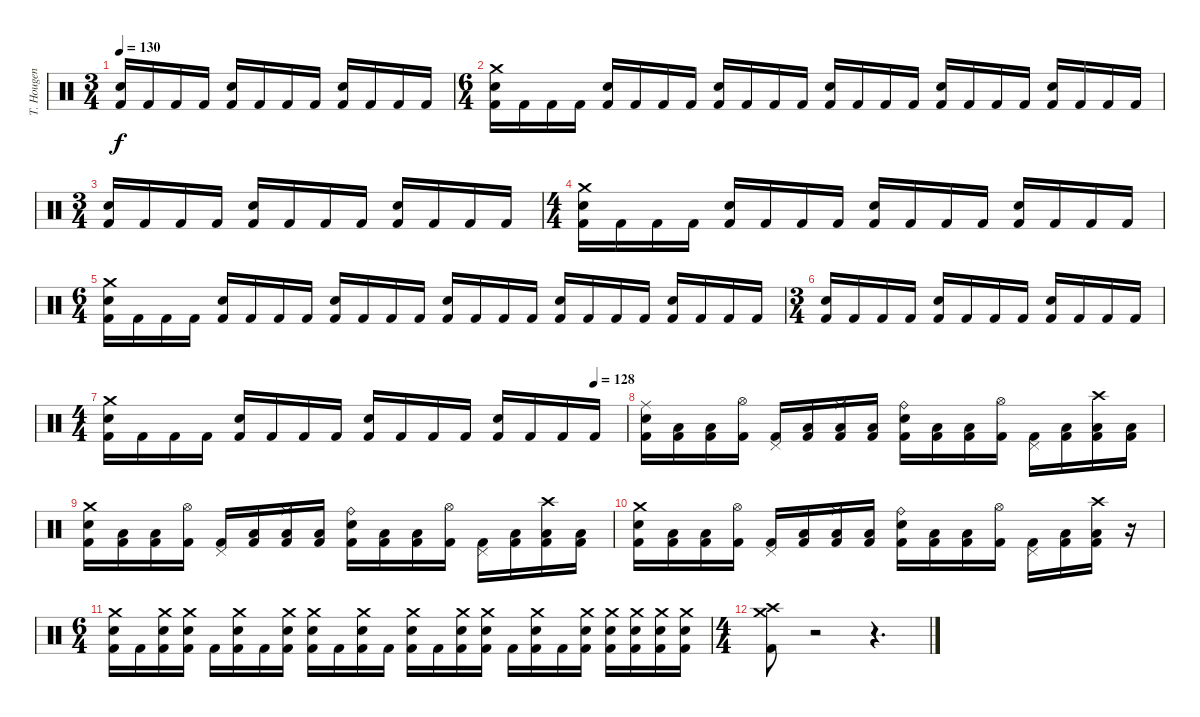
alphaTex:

\track ("T. Hougen - Drums" "T. Hougen ") {instrument percussion}
\staff {score}
\articulation defaults
\ts (3 4)
\tempo 130
\clef neutral
\ks c
("Electric Snare (hit)" "Kick (hit) 2").16{dy f} "Kick (hit) 2".16 "Kick (hit) 2".16 "Kick (hit) 2".16 ("Electric Snare (hit)" "Kick (hit) 2").16 "Kick (hit) 2".16 "Kick (hit) 2".16 "Kick (hit) 2".16 ("Electric Snare (hit)" "Kick (hit) 2").16 "Kick (hit) 2".16 "Kick (hit) 2".16 "Kick (hit) 2".16 |
\ts (6 4)
("Crash medium (hit)" "Electric Snare (hit)" "Kick (hit) 2").16 "Kick (hit) 2".16 "Kick (hit) 2".16 "Kick (hit) 2".16 ("Electric Snare (hit)" "Kick (hit) 2").16 "Kick (hit) 2".16 "Kick (hit) 2".16 "Kick (hit) 2".16 ("Electric Snare (hit)" "Kick (hit) 2").16 "Kick (hit) 2".16 "Kick (hit) 2".16 "Kick (hit) 2".16 ("Electric Snare (hit)" "Kick (hit) 2").16 "Kick (hit) 2".16 "Kick (hit) 2".16 "Kick (hit) 2".16 ("Electric Snare (hit)" "Kick (hit) 2").16 "Kick (hit) 2".16 "Kick (hit) 2".16 "Kick (hit) 2".16 ("Electric Snare (hit)" "Kick (hit) 2").16 "Kick (hit) 2".16 "Kick (hit) 2".16 "Kick (hit) 2".16 |
\ts (3 4)
("Electric Snare (hit)" "Kick (hit) 2").16 "Kick (hit) 2".16 "Kick (hit) 2".16 "Kick (hit) 2".16 ("Electric Snare (hit)" "Kick (hit) 2").16 "Kick (hit) 2".16 "Kick (hit) 2".16 "Kick (hit) 2".16 ("Electric Snare (hit)" "Kick (hit) 2").16 "Kick (hit) 2".16 "Kick (hit) 2".16 "Kick (hit) 2".16 |
\ts (4 4)
("Crash medium (hit)" "Electric Snare (hit)" "Kick (hit) 2").16 "Kick (hit) 2".16 "Kick (hit) 2".16 "Kick (hit) 2".16 ("Electric Snare (hit)" "Kick (hit) 2").16 "Kick (hit) 2".16 "Kick (hit) 2".16 "Kick (hit) 2".16 ("Electric Snare (hit)" "Kick (hit) 2").16 "Kick (hit) 2".16 "Kick (hit) 2".16 "Kick (hit) 2".16 ("Electric Snare (hit)" "Kick (hit) 2").16 "Kick (hit) 2".16 "Kick (hit) 2".16 "Kick (hit) 2".16 |
\ts (6 4)
("Crash medium (hit)" "Electric Snare (hit)" "Kick (hit) 2").16 "Kick (hit) 2".16 "Kick (hit) 2".16 "Kick (hit) 2".16 ("Electric Snare (hit)" "Kick (hit) 2").16 "Kick (hit) 2".16 "Kick (hit) 2".16 "Kick (hit) 2".16 ("Electric Snare (hit)" "Kick (hit) 2").16 "Kick (hit) 2".16 "Kick (hit) 2".16 "Kick (hit) 2".16 ("Electric Snare (hit)" "Kick (hit) 2").16 "Kick (hit) 2".16 "Kick (hit) 2".16 "Kick (hit) 2".16 ("Electric Snare (hit)" "Kick (hit) 2").16 "Kick (hit) 2".16 "Kick (hit) 2".16 "Kick (hit) 2".16 ("Electric Snare (hit)" "Kick (hit) 2").16 "Kick (hit) 2".16 "Kick (hit) 2".16 "Kick (hit) 2".16 |
\ts (3 4)
("Electric Snare (hit)" "Kick (hit) 2").16 "Kick (hit) 2".16 "Kick (hit) 2".16 "Kick (hit) 2".16 ("Electric Snare (hit)" "Kick (hit) 2").16 "Kick (hit) 2".16 "Kick (hit) 2".16 "Kick (hit) 2".16 ("Electric Snare (hit)" "Kick (hit) 2").16 "Kick (hit) 2".16 "Kick (hit) 2".16 "Kick (hit) 2".16 |
\ts (4 4)
\tempo (128 0.9375)
("Crash medium (hit)" "Electric Snare (hit)" "Kick (hit) 2").16 "Kick (hit) 2".16 "Kick (hit) 2".16 "Kick (hit) 2".16 ("Electric Snare (hit)" "Kick (hit) 2").16 "Kick (hit) 2".16 "Kick (hit) 2".16 "Kick (hit) 2".16 ("Electric Snare (hit)" "Kick (hit) 2").16 "Kick (hit) 2".16 "Kick (hit) 2".16 "Kick (hit) 2".16 ("Electric Snare (hit)" "Kick (hit) 2").16 "Kick (hit) 2".16 "Kick (hit) 2".16 "Kick (hit) 2".16 |
("Ride (middle)" "Electric Snare (hit)" "Kick (hit) 2").16 ("Low Tom (hit)" "Kick (hit) 2").16 ("Low Tom (hit)" "Kick (hit) 2").16 ("Hi-Hat (open)" "Kick (hit) 2").16 ("Pedal Hi-Hat (hit)" "Kick (hit) 2").16 ("Low Tom (hit)" "Kick (hit) 2").16 ("Ride (middle)" "Low Tom (hit)" "Kick (hit) 2").16 ("Low Tom (hit)" "Kick (hit) 2").16 ("Ride (bell)" "Electric Snare (hit)" "Kick (hit) 2").16 ("Low Tom (hit)" "Kick (hit) 2").16 ("Low Tom (hit)" "Kick (hit) 2").16 ("Hi-Hat (open)" "Kick (hit) 2").16 ("Pedal Hi-Hat (hit)" "Kick (hit) 2").16 ("Low Tom (hit)" "Kick (hit) 2").16 ("Crash high (hit)" "Low Tom (hit)" "Kick (hit) 2").16 ("Low Tom (hit)" "Kick (hit) 2").16 |
("Crash medium (hit)" "Electric Snare (hit)" "Kick (hit) 2").16 ("Low Tom (hit)" "Kick (hit) 2").16 ("Low Tom (hit)" "Kick (hit) 2").16 ("Hi-Hat (open)" "Kick (hit) 2").16 ("Pedal Hi-Hat (hit)" "Kick (hit) 2").16 ("Low Tom (hit)" "Kick (hit) 2").16 ("Ride (middle)" "Low Tom (hit)" "Kick (hit) 2").16 ("Low Tom (hit)" "Kick (hit) 2").16 ("Ride (bell)" "Electric Snare (hit)" "Kick (hit) 2").16 ("Low Tom (hit)" "Kick (hit) 2").16 ("Low Tom (hit)" "Kick (hit) 2").16 ("Hi-Hat (open)" "Kick (hit) 2").16 ("Pedal Hi-Hat (hit)" "Kick (hit) 2").16 ("Low Tom (hit)" "Kick (hit) 2").16 ("Crash high (hit)" "Low Tom (hit)" "Kick (hit) 2").16 ("Low Tom (hit)" "Kick (hit) 2").16 |
("Crash medium (hit)" "Electric Snare (hit)" "Kick (hit) 2").16 ("Low Tom (hit)" "Kick (hit) 2").16 ("Low Tom (hit)" "Kick (hit) 2").16 ("Hi-Hat (open)" "Kick (hit) 2").16 ("Pedal Hi-Hat (hit)" "Kick (hit) 2").16 ("Low Tom (hit)" "Kick (hit) 2").16 ("Ride (middle)" "Low Tom (hit)" "Kick (hit) 2").16 ("Low Tom (hit)" "Kick (hit) 2").16 ("Ride (bell)" "Electric Snare (hit)" "Kick (hit) 2").16 ("Low Tom (hit)" "Kick (hit) 2").16 ("Low Tom (hit)" "Kick (hit) 2").16 ("Hi-Hat (open)" "Kick (hit) 2").16 ("Pedal Hi-Hat (hit)" "Kick (hit) 2").16 ("Low Tom (hit)" "Kick (hit) 2").16 ("Crash high (hit)" "Low Tom (hit)" "Kick (hit) 2").16 r.16 |
\ts (6 4)
("Crash medium (hit)" "Electric Snare (hit)" "Kick (hit) 2").16 "Kick (hit) 2".16 ("Crash medium (hit)" "Electric Snare (hit)" "Kick (hit) 2").16 ("Crash medium (hit)" "Electric Snare (hit)" "Kick (hit) 2").16 "Kick (hit) 2".16 ("Crash medium (hit)" "Electric Snare (hit)" "Kick (hit) 2").16 "Kick (hit) 2".16 ("Crash medium (hit)" "Electric Snare (hit)" "Kick (hit) 2").16 ("Crash medium (hit)" "Electric Snare (hit)" "Kick (hit) 2").16 "Kick (hit) 2".16 ("Crash medium (hit)" "Electric Snare (hit)" "Kick (hit) 2").16 "Kick (hit) 2".16 ("Crash medium (hit)" "Electric Snare (hit)" "Kick (hit) 2").16 "Kick (hit) 2".16 ("Crash medium (hit)" "Electric Snare (hit)" "Kick (hit) 2").16 ("Crash medium (hit)" "Electric Snare (hit)" "Kick (hit) 2").16 "Kick (hit) 2".16 ("Crash medium (hit)" "Electric Snare (hit)" "Kick (hit) 2").16 "Kick (hit) 2".16 ("Crash medium (hit)" "Electric Snare (hit)" "Kick (hit) 2").16 ("Crash medium (hit)" "Electric Snare (hit)" "Kick (hit) 2").16 ("Crash medium (hit)" "Electric Snare (hit)" "Kick (hit) 2").16 ("Crash medium (hit)" "Electric Snare (hit)" "Kick (hit) 2").16 ("Crash medium (hit)" "Electric Snare (hit)" "Kick (hit) 2").16 |
\ts (4 4)
("Crash medium (hit)" "Crash high (hit)" "Kick (hit) 2").8 r.2 r.4{d}
